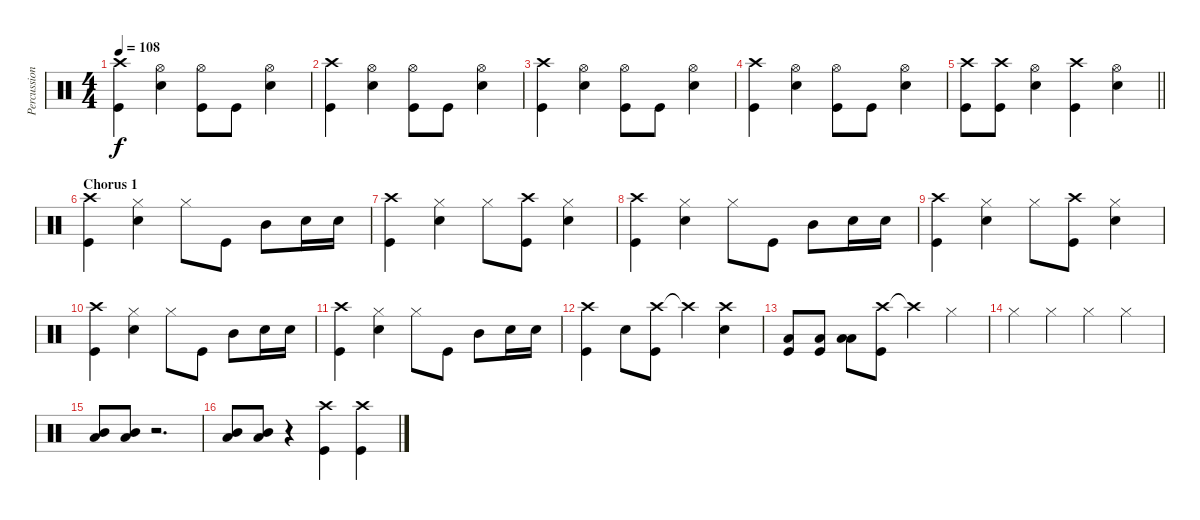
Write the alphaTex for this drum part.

\track ("Percussion" "Percussion") {instrument percussion}
\staff {score}
\articulation defaults
\ts (4 4)
\tempo 108
\clef neutral
\ks c
("Crash high (hit)" "Kick (hit)").4{dy f} ("Snare (hit) 2" "Hi-Hat (open)").4 ("Hi-Hat (open)" "Kick (hit)").8 "Kick (hit)".8 ("Hi-Hat (open)" "Snare (hit) 2").4 |
("Crash high (hit)" "Kick (hit)").4 ("Snare (hit) 2" "Hi-Hat (open)").4 ("Hi-Hat (open)" "Kick (hit)").8 "Kick (hit)".8 ("Hi-Hat (open)" "Snare (hit) 2").4 |
("Crash high (hit)" "Kick (hit)").4 ("Snare (hit) 2" "Hi-Hat (open)").4 ("Hi-Hat (open)" "Kick (hit)").8 "Kick (hit)".8 ("Hi-Hat (open)" "Snare (hit) 2").4 |
("Crash high (hit)" "Kick (hit)").4 ("Snare (hit) 2" "Hi-Hat (open)").4 ("Hi-Hat (open)" "Kick (hit)").8 "Kick (hit)".8 ("Hi-Hat (open)" "Snare (hit) 2").4 |
\barLineRight lightlight
("Crash high (hit)" "Kick (hit)").8 ("Crash high (hit)" "Kick (hit)").8 ("Hi-Hat (open)" "Snare (hit) 2").4 ("Crash high (hit)" "Kick (hit)").4 ("Hi-Hat (open)" "Snare (hit) 2").4 |
\section ("" "Chorus 1")
("Kick (hit)" "Crash high (hit)").4 ("Snare (hit) 2" "Hi-Hat (closed)").4 "Hi-Hat (closed)".8 "Kick (hit)".8 "Mid Tom (hit)".8 "Snare (hit) 2".16 "Snare (hit) 2".16 |
("Kick (hit)" "Crash high (hit)").4 ("Snare (hit) 2" "Hi-Hat (closed)").4 "Hi-Hat (closed)".8 ("Crash high (hit)" "Kick (hit)").8 ("Snare (hit) 2" "Hi-Hat (closed)").4 |
("Kick (hit)" "Crash high (hit)").4 ("Snare (hit) 2" "Hi-Hat (closed)").4 "Hi-Hat (closed)".8 "Kick (hit)".8 "Mid Tom (hit)".8 "Snare (hit) 2".16 "Snare (hit) 2".16 |
("Kick (hit)" "Crash high (hit)").4 ("Snare (hit) 2" "Hi-Hat (closed)").4 "Hi-Hat (closed)".8 ("Crash high (hit)" "Kick (hit)").8 ("Snare (hit) 2" "Hi-Hat (closed)").4 |
("Kick (hit)" "Crash high (hit)").4 ("Snare (hit) 2" "Hi-Hat (closed)").4 "Hi-Hat (closed)".8 "Kick (hit)".8 "Mid Tom (hit)".8 "Snare (hit) 2".16 "Snare (hit) 2".16 |
("Kick (hit)" "Crash high (hit)").4 ("Snare (hit) 2" "Hi-Hat (closed)").4 "Hi-Hat (closed)".8 "Kick (hit)".8 "Mid Tom (hit)".8 "Snare (hit) 2".16 "Snare (hit) 2".16 |
("Crash high (hit)" "Kick (hit)").4 "Snare (hit) 2".8 ("Crash high (hit)" "Kick (hit)").8 "Crash high (hit)"{t}.4 ("Crash high (hit)" "Snare (hit) 2").4 |
("Low Tom (hit)" "Kick (hit)").8 ("Low Tom (hit)" "Kick (hit)").8 ("Low Tom (hit)" "Low Floor Tom (hit)").8 ("Crash high (hit)" "Kick (hit)").8 "Crash high (hit)"{t}.4 "Hi-Hat (closed)".4 |
"Hi-Hat (closed)".4 "Hi-Hat (closed)".4 "Hi-Hat (closed)".4 "Hi-Hat (closed)".4 |
("Low Tom (hit)" "Mid Tom (hit)").8 ("Low Tom (hit)" "Mid Tom (hit)").8 r.2{d} |
("Low Tom (hit)" "Mid Tom (hit)").8 ("Low Tom (hit)" "Mid Tom (hit)").8 r.4 ("Crash high (hit)" "Kick (hit)").4 ("Crash high (hit)" "Kick (hit)").4
